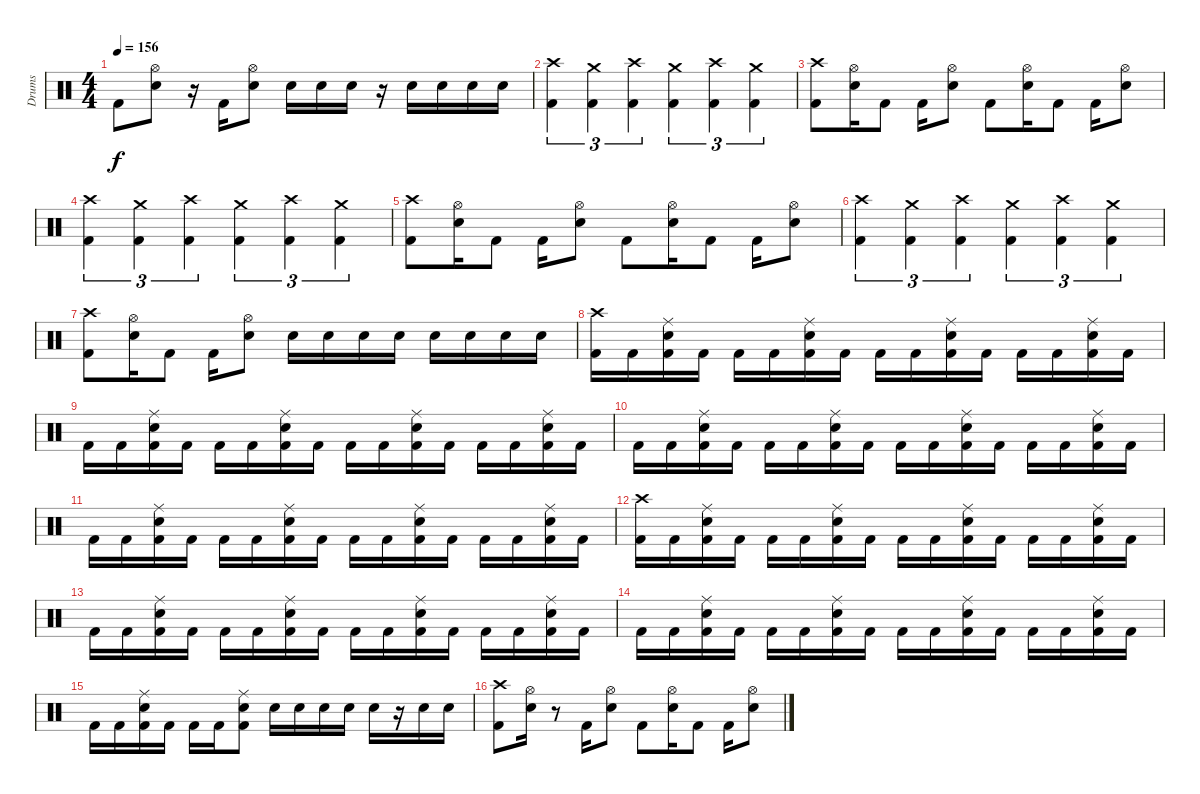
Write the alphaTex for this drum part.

\track ("Drums" "Drums") {instrument percussion}
\staff {score}
\articulation defaults
\ts (4 4)
\tempo 156
\clef neutral
\ks c "Kick (hit) 2".8{dy f}
("Hi-Hat (open)" "Electric Snare (hit)").8 r.16 "Kick (hit) 2".16 ("Hi-Hat (open)" "Electric Snare (hit)").8 "Electric Snare (hit)".16 "Electric Snare (hit)".16 "Electric Snare (hit)".16 r.16 "Electric Snare (hit)".16 "Electric Snare (hit)".16 "Electric Snare (hit)".16 "Electric Snare (hit)".16 |
("Crash high (hit)" "Kick (hit) 2").4{tu (3 2)} ("Crash medium (hit)" "Kick (hit) 2").4{tu (3 2)} ("Crash high (hit)" "Kick (hit) 2").4{tu (3 2)} ("Crash medium (hit)" "Kick (hit) 2").4{tu (3 2)} ("Crash high (hit)" "Kick (hit) 2").4{tu (3 2)} ("Crash medium (hit)" "Kick (hit) 2").4{tu (3 2)} |
("Crash high (hit)" "Kick (hit) 2").8 ("Hi-Hat (open)" "Electric Snare (hit)").16 "Kick (hit) 2".8 "Kick (hit) 2".16 ("Hi-Hat (open)" "Electric Snare (hit)").8 "Kick (hit) 2".8 ("Hi-Hat (open)" "Electric Snare (hit)").16 "Kick (hit) 2".8 "Kick (hit) 2".16 ("Hi-Hat (open)" "Electric Snare (hit)").8 |
("Crash high (hit)" "Kick (hit) 2").4{tu (3 2)} ("Crash medium (hit)" "Kick (hit) 2").4{tu (3 2)} ("Crash high (hit)" "Kick (hit) 2").4{tu (3 2)} ("Crash medium (hit)" "Kick (hit) 2").4{tu (3 2)} ("Crash high (hit)" "Kick (hit) 2").4{tu (3 2)} ("Crash medium (hit)" "Kick (hit) 2").4{tu (3 2)} |
("Crash high (hit)" "Kick (hit) 2").8 ("Hi-Hat (open)" "Electric Snare (hit)").16 "Kick (hit) 2".8 "Kick (hit) 2".16 ("Hi-Hat (open)" "Electric Snare (hit)").8 "Kick (hit) 2".8 ("Hi-Hat (open)" "Electric Snare (hit)").16 "Kick (hit) 2".8 "Kick (hit) 2".16 ("Hi-Hat (open)" "Electric Snare (hit)").8 |
("Crash high (hit)" "Kick (hit) 2").4{tu (3 2)} ("Crash medium (hit)" "Kick (hit) 2").4{tu (3 2)} ("Crash high (hit)" "Kick (hit) 2").4{tu (3 2)} ("Crash medium (hit)" "Kick (hit) 2").4{tu (3 2)} ("Crash high (hit)" "Kick (hit) 2").4{tu (3 2)} ("Crash medium (hit)" "Kick (hit) 2").4{tu (3 2)} |
("Crash high (hit)" "Kick (hit) 2").8 ("Hi-Hat (open)" "Electric Snare (hit)").16 "Kick (hit) 2".8 "Kick (hit) 2".16 ("Hi-Hat (open)" "Electric Snare (hit)").8 "Electric Snare (hit)".16 "Electric Snare (hit)".16 "Electric Snare (hit)".16 "Electric Snare (hit)".16 "Electric Snare (hit)".16 "Electric Snare (hit)".16 "Electric Snare (hit)".16 "Electric Snare (hit)".16 |
("Crash high (hit)" "Kick (hit) 2").16 "Kick (hit) 2".16 ("Ride (middle)" "Electric Snare (hit)" "Kick (hit) 2").16 "Kick (hit) 2".16 "Kick (hit) 2".16 "Kick (hit) 2".16 ("Ride (middle)" "Electric Snare (hit)" "Kick (hit) 2").16 "Kick (hit) 2".16 "Kick (hit) 2".16 "Kick (hit) 2".16 ("Ride (middle)" "Electric Snare (hit)" "Kick (hit) 2").16 "Kick (hit) 2".16 "Kick (hit) 2".16 "Kick (hit) 2".16 ("Ride (middle)" "Electric Snare (hit)" "Kick (hit) 2").16 "Kick (hit) 2".16 |
"Kick (hit) 2".16 "Kick (hit) 2".16 ("Ride (middle)" "Electric Snare (hit)" "Kick (hit) 2").16 "Kick (hit) 2".16 "Kick (hit) 2".16 "Kick (hit) 2".16 ("Ride (middle)" "Electric Snare (hit)" "Kick (hit) 2").16 "Kick (hit) 2".16 "Kick (hit) 2".16 "Kick (hit) 2".16 ("Ride (middle)" "Electric Snare (hit)" "Kick (hit) 2").16 "Kick (hit) 2".16 "Kick (hit) 2".16 "Kick (hit) 2".16 ("Ride (middle)" "Electric Snare (hit)" "Kick (hit) 2").16 "Kick (hit) 2".16 |
"Kick (hit) 2".16 "Kick (hit) 2".16 ("Ride (middle)" "Electric Snare (hit)" "Kick (hit) 2").16 "Kick (hit) 2".16 "Kick (hit) 2".16 "Kick (hit) 2".16 ("Ride (middle)" "Electric Snare (hit)" "Kick (hit) 2").16 "Kick (hit) 2".16 "Kick (hit) 2".16 "Kick (hit) 2".16 ("Ride (middle)" "Electric Snare (hit)" "Kick (hit) 2").16 "Kick (hit) 2".16 "Kick (hit) 2".16 "Kick (hit) 2".16 ("Ride (middle)" "Electric Snare (hit)" "Kick (hit) 2").16 "Kick (hit) 2".16 |
"Kick (hit) 2".16 "Kick (hit) 2".16 ("Ride (middle)" "Electric Snare (hit)" "Kick (hit) 2").16 "Kick (hit) 2".16 "Kick (hit) 2".16 "Kick (hit) 2".16 ("Ride (middle)" "Electric Snare (hit)" "Kick (hit) 2").16 "Kick (hit) 2".16 "Kick (hit) 2".16 "Kick (hit) 2".16 ("Ride (middle)" "Electric Snare (hit)" "Kick (hit) 2").16 "Kick (hit) 2".16 "Kick (hit) 2".16 "Kick (hit) 2".16 ("Ride (middle)" "Electric Snare (hit)" "Kick (hit) 2").16 "Kick (hit) 2".16 |
("Crash high (hit)" "Kick (hit) 2").16 "Kick (hit) 2".16 ("Ride (middle)" "Electric Snare (hit)" "Kick (hit) 2").16 "Kick (hit) 2".16 "Kick (hit) 2".16 "Kick (hit) 2".16 ("Ride (middle)" "Electric Snare (hit)" "Kick (hit) 2").16 "Kick (hit) 2".16 "Kick (hit) 2".16 "Kick (hit) 2".16 ("Ride (middle)" "Electric Snare (hit)" "Kick (hit) 2").16 "Kick (hit) 2".16 "Kick (hit) 2".16 "Kick (hit) 2".16 ("Ride (middle)" "Electric Snare (hit)" "Kick (hit) 2").16 "Kick (hit) 2".16 |
"Kick (hit) 2".16 "Kick (hit) 2".16 ("Ride (middle)" "Electric Snare (hit)" "Kick (hit) 2").16 "Kick (hit) 2".16 "Kick (hit) 2".16 "Kick (hit) 2".16 ("Ride (middle)" "Electric Snare (hit)" "Kick (hit) 2").16 "Kick (hit) 2".16 "Kick (hit) 2".16 "Kick (hit) 2".16 ("Ride (middle)" "Electric Snare (hit)" "Kick (hit) 2").16 "Kick (hit) 2".16 "Kick (hit) 2".16 "Kick (hit) 2".16 ("Ride (middle)" "Electric Snare (hit)" "Kick (hit) 2").16 "Kick (hit) 2".16 |
"Kick (hit) 2".16 "Kick (hit) 2".16 ("Ride (middle)" "Electric Snare (hit)" "Kick (hit) 2").16 "Kick (hit) 2".16 "Kick (hit) 2".16 "Kick (hit) 2".16 ("Ride (middle)" "Electric Snare (hit)" "Kick (hit) 2").16 "Kick (hit) 2".16 "Kick (hit) 2".16 "Kick (hit) 2".16 ("Ride (middle)" "Electric Snare (hit)" "Kick (hit) 2").16 "Kick (hit) 2".16 "Kick (hit) 2".16 "Kick (hit) 2".16 ("Ride (middle)" "Electric Snare (hit)" "Kick (hit) 2").16 "Kick (hit) 2".16 |
"Kick (hit) 2".16 "Kick (hit) 2".16 ("Ride (middle)" "Electric Snare (hit)" "Kick (hit) 2").16 "Kick (hit) 2".16 "Kick (hit) 2".16 "Kick (hit) 2".16 ("Ride (middle)" "Electric Snare (hit)" "Kick (hit) 2").8 "Electric Snare (hit)".16 "Electric Snare (hit)".16 "Electric Snare (hit)".16 "Electric Snare (hit)".16 "Electric Snare (hit)".16 r.16 "Electric Snare (hit)".16 "Electric Snare (hit)".16 |
("Crash high (hit)" "Kick (hit) 2").8 ("Hi-Hat (open)" "Electric Snare (hit)").16 r.8 "Kick (hit) 2".16 ("Hi-Hat (open)" "Electric Snare (hit)").8 "Kick (hit) 2".8 ("Hi-Hat (open)" "Electric Snare (hit)").16 "Kick (hit) 2".8 "Kick (hit) 2".16 ("Hi-Hat (open)" "Electric Snare (hit)").8
